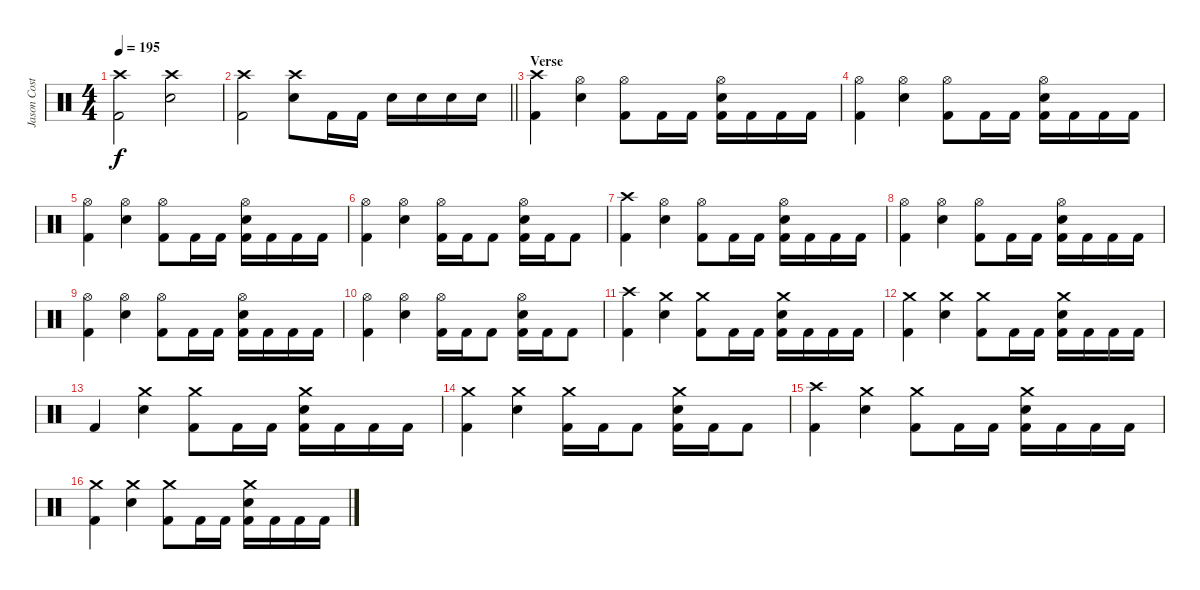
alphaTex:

\track ("Jason Costa" "Jason Cost") {instrument percussion}
\staff {score}
\articulation defaults
\ts (4 4)
\tempo 195
\clef neutral
\ks c
("Crash high (hit)" "Kick (hit) 2").2{dy f} ("Crash high (hit)" "Electric Snare (hit)").2 |
\barLineRight lightlight
("Crash high (hit)" "Kick (hit) 2").2 ("Crash high (hit)" "Electric Snare (hit)").8 "Kick (hit) 2".16 "Kick (hit) 2".16 "Electric Snare (hit)".16 "Electric Snare (hit)".16 "Electric Snare (hit)".16 "Electric Snare (hit)".16 |
\section ("" "Verse")
("Crash high (hit)" "Kick (hit) 2").4 ("Hi-Hat (open)" "Electric Snare (hit)").4 ("Hi-Hat (open)" "Kick (hit) 2").8 "Kick (hit) 2".16 "Kick (hit) 2".16 ("Hi-Hat (open)" "Electric Snare (hit)" "Kick (hit) 2").16 "Kick (hit) 2".16 "Kick (hit) 2".16 "Kick (hit) 2".16 |
("Hi-Hat (open)" "Kick (hit) 2").4 ("Hi-Hat (open)" "Electric Snare (hit)").4 ("Hi-Hat (open)" "Kick (hit) 2").8 "Kick (hit) 2".16 "Kick (hit) 2".16 ("Hi-Hat (open)" "Electric Snare (hit)" "Kick (hit) 2").16 "Kick (hit) 2".16 "Kick (hit) 2".16 "Kick (hit) 2".16 |
("Hi-Hat (open)" "Kick (hit) 2").4 ("Hi-Hat (open)" "Electric Snare (hit)").4 ("Hi-Hat (open)" "Kick (hit) 2").8 "Kick (hit) 2".16 "Kick (hit) 2".16 ("Hi-Hat (open)" "Electric Snare (hit)" "Kick (hit) 2").16 "Kick (hit) 2".16 "Kick (hit) 2".16 "Kick (hit) 2".16 |
("Hi-Hat (open)" "Kick (hit) 2").4 ("Hi-Hat (open)" "Electric Snare (hit)").4 ("Hi-Hat (open)" "Kick (hit) 2").16 "Kick (hit) 2".16 "Kick (hit) 2".8 ("Hi-Hat (open)" "Electric Snare (hit)" "Kick (hit) 2").16 "Kick (hit) 2".16 "Kick (hit) 2".8 |
("Crash high (hit)" "Kick (hit) 2").4 ("Hi-Hat (open)" "Electric Snare (hit)").4 ("Hi-Hat (open)" "Kick (hit) 2").8 "Kick (hit) 2".16 "Kick (hit) 2".16 ("Hi-Hat (open)" "Electric Snare (hit)" "Kick (hit) 2").16 "Kick (hit) 2".16 "Kick (hit) 2".16 "Kick (hit) 2".16 |
("Hi-Hat (open)" "Kick (hit) 2").4 ("Hi-Hat (open)" "Electric Snare (hit)").4 ("Hi-Hat (open)" "Kick (hit) 2").8 "Kick (hit) 2".16 "Kick (hit) 2".16 ("Hi-Hat (open)" "Electric Snare (hit)" "Kick (hit) 2").16 "Kick (hit) 2".16 "Kick (hit) 2".16 "Kick (hit) 2".16 |
("Hi-Hat (open)" "Kick (hit) 2").4 ("Hi-Hat (open)" "Electric Snare (hit)").4 ("Hi-Hat (open)" "Kick (hit) 2").8 "Kick (hit) 2".16 "Kick (hit) 2".16 ("Hi-Hat (open)" "Electric Snare (hit)" "Kick (hit) 2").16 "Kick (hit) 2".16 "Kick (hit) 2".16 "Kick (hit) 2".16 |
("Hi-Hat (open)" "Kick (hit) 2").4 ("Hi-Hat (open)" "Electric Snare (hit)").4 ("Hi-Hat (open)" "Kick (hit) 2").16 "Kick (hit) 2".16 "Kick (hit) 2".8 ("Hi-Hat (open)" "Electric Snare (hit)" "Kick (hit) 2").16 "Kick (hit) 2".16 "Kick (hit) 2".8 |
("Crash high (hit)" "Kick (hit) 2").4 ("Crash medium (hit)" "Electric Snare (hit)").4 ("Crash medium (hit)" "Kick (hit) 2").8 "Kick (hit) 2".16 "Kick (hit) 2".16 ("Crash medium (hit)" "Electric Snare (hit)" "Kick (hit) 2").16 "Kick (hit) 2".16 "Kick (hit) 2".16 "Kick (hit) 2".16 |
("Crash medium (hit)" "Kick (hit) 2").4 ("Crash medium (hit)" "Electric Snare (hit)").4 ("Crash medium (hit)" "Kick (hit) 2").8 "Kick (hit) 2".16 "Kick (hit) 2".16 ("Crash medium (hit)" "Electric Snare (hit)" "Kick (hit) 2").16 "Kick (hit) 2".16 "Kick (hit) 2".16 "Kick (hit) 2".16 |
"Kick (hit) 2".4 ("Crash medium (hit)" "Electric Snare (hit)").4 ("Crash medium (hit)" "Kick (hit) 2").8 "Kick (hit) 2".16 "Kick (hit) 2".16 ("Crash medium (hit)" "Electric Snare (hit)" "Kick (hit) 2").16 "Kick (hit) 2".16 "Kick (hit) 2".16 "Kick (hit) 2".16 |
("Crash medium (hit)" "Kick (hit) 2").4 ("Crash medium (hit)" "Electric Snare (hit)").4 ("Crash medium (hit)" "Kick (hit) 2").16 "Kick (hit) 2".16 "Kick (hit) 2".8 ("Crash medium (hit)" "Electric Snare (hit)" "Kick (hit) 2").16 "Kick (hit) 2".16 "Kick (hit) 2".8 |
("Crash high (hit)" "Kick (hit) 2").4 ("Crash medium (hit)" "Electric Snare (hit)").4 ("Crash medium (hit)" "Kick (hit) 2").8 "Kick (hit) 2".16 "Kick (hit) 2".16 ("Crash medium (hit)" "Electric Snare (hit)" "Kick (hit) 2").16 "Kick (hit) 2".16 "Kick (hit) 2".16 "Kick (hit) 2".16 |
("Crash medium (hit)" "Kick (hit) 2").4 ("Crash medium (hit)" "Electric Snare (hit)").4 ("Crash medium (hit)" "Kick (hit) 2").8 "Kick (hit) 2".16 "Kick (hit) 2".16 ("Crash medium (hit)" "Electric Snare (hit)" "Kick (hit) 2").16 "Kick (hit) 2".16 "Kick (hit) 2".16 "Kick (hit) 2".16
